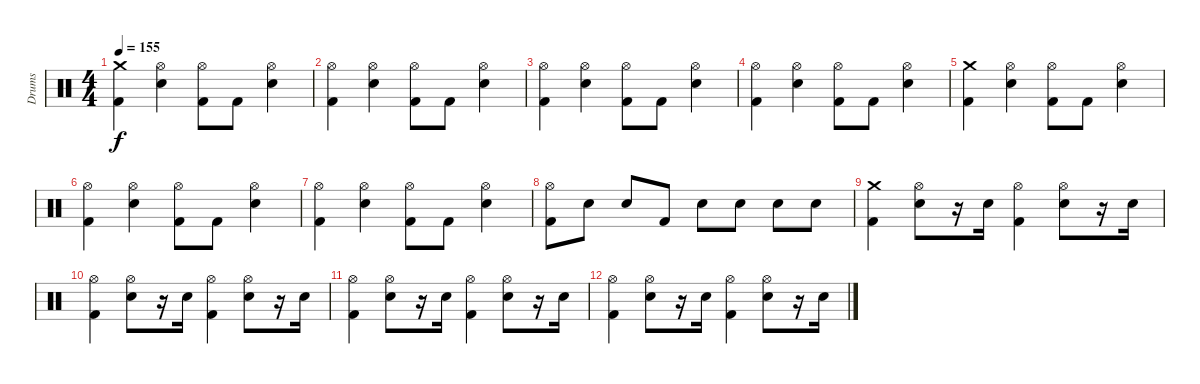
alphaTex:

\track ("Drums" "Drums") {instrument percussion}
\staff {score}
\articulation defaults
\ts (4 4)
\tempo 155
\clef neutral
\ks c
("Crash medium (hit)" "Kick (hit) 2").4{dy f} ("Hi-Hat (open)" "Snare (hit) 2").4 ("Hi-Hat (open)" "Kick (hit) 2").8 "Kick (hit) 2".8 ("Hi-Hat (open)" "Snare (hit) 2").4 |
("Hi-Hat (open)" "Kick (hit) 2").4 ("Hi-Hat (open)" "Snare (hit) 2").4 ("Hi-Hat (open)" "Kick (hit) 2").8 "Kick (hit) 2".8 ("Hi-Hat (open)" "Snare (hit) 2").4 |
("Hi-Hat (open)" "Kick (hit) 2").4 ("Hi-Hat (open)" "Snare (hit) 2").4 ("Hi-Hat (open)" "Kick (hit) 2").8 "Kick (hit) 2".8 ("Hi-Hat (open)" "Snare (hit) 2").4 |
("Hi-Hat (open)" "Kick (hit) 2").4 ("Hi-Hat (open)" "Snare (hit) 2").4 ("Hi-Hat (open)" "Kick (hit) 2").8 "Kick (hit) 2".8 ("Hi-Hat (open)" "Snare (hit) 2").4 |
("Crash medium (hit)" "Kick (hit) 2").4 ("Hi-Hat (open)" "Snare (hit) 2").4 ("Hi-Hat (open)" "Kick (hit) 2").8 "Kick (hit) 2".8 ("Hi-Hat (open)" "Snare (hit) 2").4 |
("Hi-Hat (open)" "Kick (hit) 2").4 ("Hi-Hat (open)" "Snare (hit) 2").4 ("Hi-Hat (open)" "Kick (hit) 2").8 "Kick (hit) 2".8 ("Hi-Hat (open)" "Snare (hit) 2").4 |
("Hi-Hat (open)" "Kick (hit) 2").4 ("Hi-Hat (open)" "Snare (hit) 2").4 ("Hi-Hat (open)" "Kick (hit) 2").8 "Kick (hit) 2".8 ("Hi-Hat (open)" "Snare (hit) 2").4 |
("Hi-Hat (open)" "Kick (hit) 2").8 "Snare (hit) 2".8 "Snare (hit) 2".8 "Kick (hit) 2".8 "Snare (hit) 2".8 "Snare (hit) 2".8 "Snare (hit) 2".8 "Snare (hit) 2".8 |
("Crash medium (hit)" "Kick (hit) 2").4 ("Hi-Hat (open)" "Snare (hit) 2").8 r.16 "Snare (hit) 2".16 ("Hi-Hat (open)" "Kick (hit) 2").4 ("Hi-Hat (open)" "Snare (hit) 2").8 r.16 "Snare (hit) 2".16 |
("Hi-Hat (open)" "Kick (hit) 2").4 ("Hi-Hat (open)" "Snare (hit) 2").8 r.16 "Snare (hit) 2".16 ("Hi-Hat (open)" "Kick (hit) 2").4 ("Hi-Hat (open)" "Snare (hit) 2").8 r.16 "Snare (hit) 2".16 |
("Hi-Hat (open)" "Kick (hit) 2").4 ("Hi-Hat (open)" "Snare (hit) 2").8 r.16 "Snare (hit) 2".16 ("Hi-Hat (open)" "Kick (hit) 2").4 ("Hi-Hat (open)" "Snare (hit) 2").8 r.16 "Snare (hit) 2".16 |
("Hi-Hat (open)" "Kick (hit) 2").4 ("Hi-Hat (open)" "Snare (hit) 2").8 r.16 "Snare (hit) 2".16 ("Hi-Hat (open)" "Kick (hit) 2").4 ("Hi-Hat (open)" "Snare (hit) 2").8 r.16 "Snare (hit) 2".16
